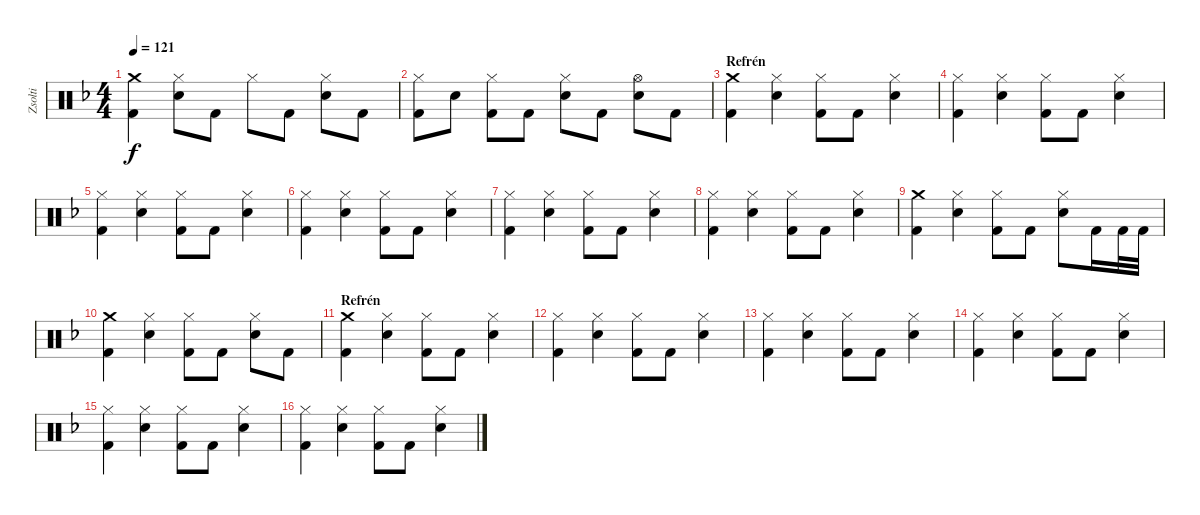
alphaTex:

\track ("Zsolti" "Zsolti") {instrument percussion}
\staff {score}
\articulation defaults
\ts (4 4)
\tempo 121
\clef neutral
\ks dminor
("Crash medium (hit)" "Kick (hit) 2").4{dy f} ("Hi-Hat (closed)" "Snare (hit) 2").8 "Kick (hit) 2".8 "Hi-Hat (closed)".8 "Kick (hit) 2".8 ("Hi-Hat (closed)" "Snare (hit) 2").8 "Kick (hit) 2".8 |
("Hi-Hat (closed)" "Kick (hit) 2").8 "Snare (hit) 2".8 ("Hi-Hat (closed)" "Kick (hit) 2").8 "Kick (hit) 2".8 ("Hi-Hat (closed)" "Snare (hit) 2").8 "Kick (hit) 2".8 ("Hi-Hat (open)" "Snare (hit) 2").8 "Kick (hit) 2".8 |
\section ("" "Refrén")
("Crash medium (hit)" "Kick (hit) 2").4 ("Hi-Hat (closed)" "Snare (hit) 2").4 ("Hi-Hat (closed)" "Kick (hit) 2").8 "Kick (hit) 2".8 ("Hi-Hat (closed)" "Snare (hit) 2").4 |
("Hi-Hat (closed)" "Kick (hit) 2").4 ("Hi-Hat (closed)" "Snare (hit) 2").4 ("Hi-Hat (closed)" "Kick (hit) 2").8 "Kick (hit) 2".8 ("Hi-Hat (closed)" "Snare (hit) 2").4 |
("Hi-Hat (closed)" "Kick (hit) 2").4 ("Hi-Hat (closed)" "Snare (hit) 2").4 ("Hi-Hat (closed)" "Kick (hit) 2").8 "Kick (hit) 2".8 ("Hi-Hat (closed)" "Snare (hit) 2").4 |
("Hi-Hat (closed)" "Kick (hit) 2").4 ("Hi-Hat (closed)" "Snare (hit) 2").4 ("Hi-Hat (closed)" "Kick (hit) 2").8 "Kick (hit) 2".8 ("Hi-Hat (closed)" "Snare (hit) 2").4 |
("Hi-Hat (closed)" "Kick (hit) 2").4 ("Hi-Hat (closed)" "Snare (hit) 2").4 ("Hi-Hat (closed)" "Kick (hit) 2").8 "Kick (hit) 2".8 ("Hi-Hat (closed)" "Snare (hit) 2").4 |
("Hi-Hat (closed)" "Kick (hit) 2").4 ("Hi-Hat (closed)" "Snare (hit) 2").4 ("Hi-Hat (closed)" "Kick (hit) 2").8 "Kick (hit) 2".8 ("Hi-Hat (closed)" "Snare (hit) 2").4 |
("Crash medium (hit)" "Kick (hit) 2").4 ("Hi-Hat (closed)" "Snare (hit) 2").4 ("Hi-Hat (closed)" "Kick (hit) 2").8 "Kick (hit) 2".8 ("Hi-Hat (closed)" "Snare (hit) 2").8 "Kick (hit) 2".16 "Kick (hit) 2".32 "Kick (hit) 2".32 |
("Crash medium (hit)" "Kick (hit) 2").4 ("Hi-Hat (closed)" "Snare (hit) 2").4 ("Hi-Hat (closed)" "Kick (hit) 2").8 "Kick (hit) 2".8 ("Hi-Hat (closed)" "Snare (hit) 2").8 "Kick (hit) 2".8 |
\section ("" "Refrén")
("Crash medium (hit)" "Kick (hit) 2").4 ("Hi-Hat (closed)" "Snare (hit) 2").4 ("Hi-Hat (closed)" "Kick (hit) 2").8 "Kick (hit) 2".8 ("Hi-Hat (closed)" "Snare (hit) 2").4 |
("Hi-Hat (closed)" "Kick (hit) 2").4 ("Hi-Hat (closed)" "Snare (hit) 2").4 ("Hi-Hat (closed)" "Kick (hit) 2").8 "Kick (hit) 2".8 ("Hi-Hat (closed)" "Snare (hit) 2").4 |
("Hi-Hat (closed)" "Kick (hit) 2").4 ("Hi-Hat (closed)" "Snare (hit) 2").4 ("Hi-Hat (closed)" "Kick (hit) 2").8 "Kick (hit) 2".8 ("Hi-Hat (closed)" "Snare (hit) 2").4 |
("Hi-Hat (closed)" "Kick (hit) 2").4 ("Hi-Hat (closed)" "Snare (hit) 2").4 ("Hi-Hat (closed)" "Kick (hit) 2").8 "Kick (hit) 2".8 ("Hi-Hat (closed)" "Snare (hit) 2").4 |
("Hi-Hat (closed)" "Kick (hit) 2").4 ("Hi-Hat (closed)" "Snare (hit) 2").4 ("Hi-Hat (closed)" "Kick (hit) 2").8 "Kick (hit) 2".8 ("Hi-Hat (closed)" "Snare (hit) 2").4 |
("Hi-Hat (closed)" "Kick (hit) 2").4 ("Hi-Hat (closed)" "Snare (hit) 2").4 ("Hi-Hat (closed)" "Kick (hit) 2").8 "Kick (hit) 2".8 ("Hi-Hat (closed)" "Snare (hit) 2").4
